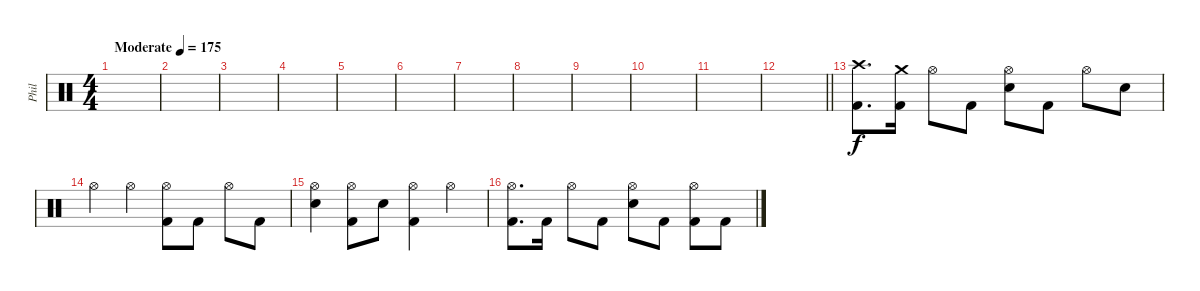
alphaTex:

\track ("Phil" "Phil") {instrument percussion}
\staff {score}
\articulation defaults
\ts (4 4)
\tempo (175 "Moderate")
\clef neutral
\ks c
|
|
|
|
|
|
|
|
|
|
|
\barLineRight lightlight
|
\section ("" "")
("Crash high (hit)" "Kick (hit) 2").8{d volume 8} ("Crash medium (hit)" "Kick (hit) 2").16 "Hi-Hat (open)".8 "Kick (hit) 2".8 ("Hi-Hat (open)" "Electric Snare (hit)").8 "Kick (hit) 2".8 "Hi-Hat (open)".8 "Electric Snare (hit)".8 |
"Hi-Hat (open)".4 "Hi-Hat (open)".4 ("Hi-Hat (open)" "Kick (hit) 2").8 "Kick (hit) 2".8 "Hi-Hat (open)".8 "Kick (hit) 2".8 |
("Hi-Hat (open)" "Electric Snare (hit)").4 ("Hi-Hat (open)" "Kick (hit) 2").8 "Electric Snare (hit)".8 ("Hi-Hat (open)" "Kick (hit) 2").4 "Hi-Hat (open)".4 |
("Hi-Hat (open)" "Kick (hit) 2").8{d} "Kick (hit) 2".16 "Hi-Hat (open)".8 "Kick (hit) 2".8 ("Hi-Hat (open)" "Electric Snare (hit)").8 "Kick (hit) 2".8 ("Hi-Hat (open)" "Kick (hit) 2").8 "Kick (hit) 2".8
